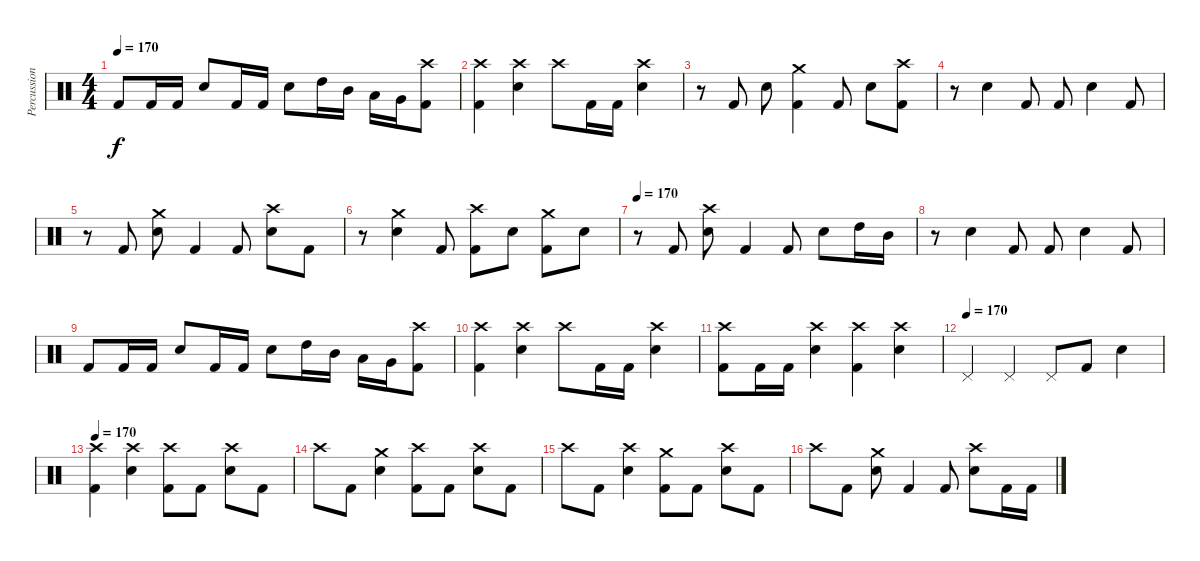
\track ("Percussion" "Percussion") {instrument percussion}
\staff {score}
\articulation defaults
\ts (4 4)
\tempo 170
\clef neutral
\ks c "Kick (hit) 2".8{dy f} "Kick (hit) 2".16 "Kick (hit) 2".16 "Electric Snare (hit)".8 "Kick (hit) 2".16 "Kick (hit) 2".16 "Electric Snare (hit)".8 "High Tom (hit)".16 "Mid Tom (hit)".16 "Low Tom (hit)".16 "Very Low Tom (hit)".16
("Crash high (hit)" "Kick (hit) 2").8 |
("Crash high (hit)" "Kick (hit) 2").4 ("Crash high (hit)" "Electric Snare (hit)").4 "Crash high (hit)".8 "Kick (hit) 2".16 "Kick (hit) 2".16 ("Crash high (hit)" "Electric Snare (hit)").4 |
r.8 "Kick (hit) 2".8 "Electric Snare (hit)".8 ("Crash medium (hit)" "Kick (hit) 2").4 "Kick (hit) 2".8 "Electric Snare (hit)".8 ("Crash high (hit)" "Kick (hit) 2").8 |
r.8 "Electric Snare (hit)".4 "Kick (hit) 2".8 "Kick (hit) 2".8 "Electric Snare (hit)".4 "Kick (hit) 2".8 |
r.8 "Kick (hit) 2".8 ("Crash medium (hit)" "Electric Snare (hit)").8 "Kick (hit) 2".4 "Kick (hit) 2".8 ("Crash high (hit)" "Electric Snare (hit)").8 "Kick (hit) 2".8 |
r.8 ("Crash medium (hit)" "Electric Snare (hit)").4 "Kick (hit) 2".8 ("Crash high (hit)" "Kick (hit) 2").8 "Electric Snare (hit)".8 ("Crash medium (hit)" "Kick (hit) 2").8 "Electric Snare (hit)".8 |
\tempo 170
r.8 "Kick (hit) 2".8 ("Crash high (hit)" "Electric Snare (hit)").8 "Kick (hit) 2".4 "Kick (hit) 2".8 "Electric Snare (hit)".8 "High Tom (hit)".16 "Mid Tom (hit)".16 |
r.8 "Electric Snare (hit)".4 "Kick (hit) 2".8 "Kick (hit) 2".8 "Electric Snare (hit)".4 "Kick (hit) 2".8 |
"Kick (hit) 2".8 "Kick (hit) 2".16 "Kick (hit) 2".16 "Electric Snare (hit)".8 "Kick (hit) 2".16 "Kick (hit) 2".16 "Electric Snare (hit)".8 "High Tom (hit)".16 "Mid Tom (hit)".16 "Low Tom (hit)".16 "Very Low Tom (hit)".16 ("Crash high (hit)" "Kick (hit) 2").8 |
("Crash high (hit)" "Kick (hit) 2").4 ("Crash high (hit)" "Electric Snare (hit)").4 "Crash high (hit)".8 "Kick (hit) 2".16 "Kick (hit) 2".16 ("Crash high (hit)" "Electric Snare (hit)").4 |
("Crash high (hit)" "Kick (hit) 2").8 "Kick (hit) 2".16 "Kick (hit) 2".16 ("Crash high (hit)" "Electric Snare (hit)").4 ("Crash high (hit)" "Kick (hit) 2").4 ("Crash high (hit)" "Electric Snare (hit)").4 |
\tempo (170)
"Pedal Hi-Hat (hit)".4 "Pedal Hi-Hat (hit)".4 "Pedal Hi-Hat (hit)".8 "Kick (hit) 2".8 "Electric Snare (hit)".4 |
\tempo 170
("Crash high (hit)" "Kick (hit) 2").4 ("Crash high (hit)" "Electric Snare (hit)").4 ("Crash high (hit)" "Kick (hit) 2").8 "Kick (hit) 2".8 ("Crash high (hit)" "Electric Snare (hit)").8 "Kick (hit) 2".8 |
"Crash high (hit)".8 "Kick (hit) 2".8 ("Crash medium (hit)" "Electric Snare (hit)").4 ("Crash high (hit)" "Kick (hit) 2").8 "Kick (hit) 2".8 ("Crash high (hit)" "Electric Snare (hit)").8 "Kick (hit) 2".8 |
"Crash high (hit)".8 "Kick (hit) 2".8 ("Crash high (hit)" "Electric Snare (hit)").4 ("Crash medium (hit)" "Kick (hit) 2").8 "Kick (hit) 2".8 ("Crash high (hit)" "Electric Snare (hit)").8 "Kick (hit) 2".8 |
"Crash high (hit)".8 "Kick (hit) 2".8 ("Crash medium (hit)" "Electric Snare (hit)").8 "Kick (hit) 2".4 "Kick (hit) 2".8 ("Crash high (hit)" "Electric Snare (hit)").8 "Kick (hit) 2".16 "Kick (hit) 2".16
